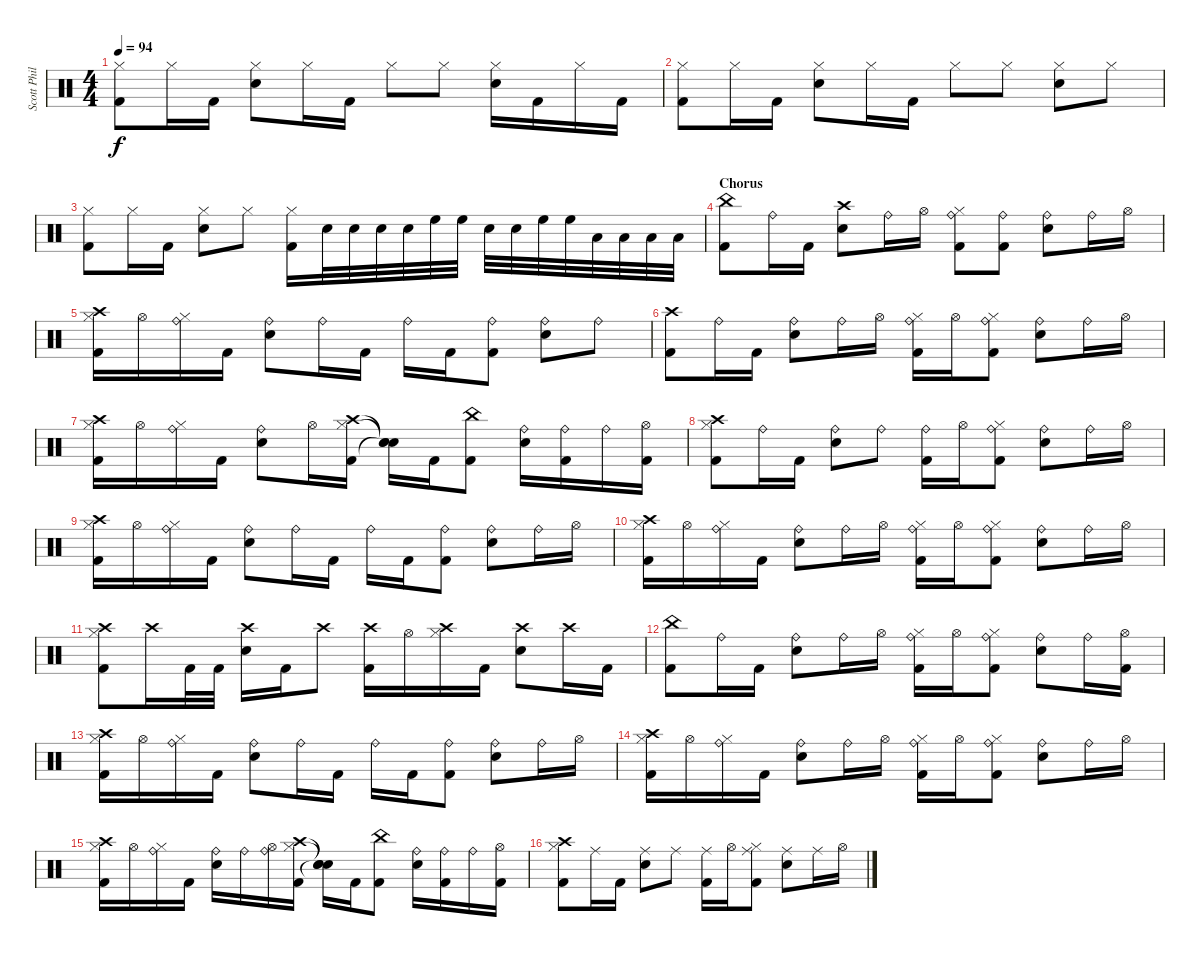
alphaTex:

\track ("Scott Phillips" "Scott Phil") {instrument percussion}
\staff {score}
\articulation defaults
\ts (4 4)
\tempo 94
\clef neutral
\ks c
("Hi-Hat (closed)" "Kick (hit) 2").8{dy f} "Hi-Hat (closed)".16 "Kick (hit) 2".16 ("Hi-Hat (closed)" "Electric Snare (hit)").8 "Hi-Hat (closed)".16 "Kick (hit) 2".16 "Hi-Hat (closed)".8 "Hi-Hat (closed)".8 ("Hi-Hat (closed)" "Electric Snare (hit)").16 "Kick (hit) 2".16 "Hi-Hat (closed)".16 "Kick (hit) 2".16 |
("Hi-Hat (closed)" "Kick (hit) 2").8 "Hi-Hat (closed)".16 "Kick (hit) 2".16 ("Hi-Hat (closed)" "Electric Snare (hit)").8 "Hi-Hat (closed)".16 "Kick (hit) 2".16 "Hi-Hat (closed)".8 "Hi-Hat (closed)".8 ("Hi-Hat (closed)" "Electric Snare (hit)").8 "Hi-Hat (closed)".8 |
("Hi-Hat (closed)" "Kick (hit) 2").8 "Hi-Hat (closed)".16 "Kick (hit) 2".16 ("Hi-Hat (closed)" "Electric Snare (hit)").8 "Hi-Hat (closed)".8 ("Hi-Hat (closed)" "Kick (hit) 2").16 "Electric Snare (hit)".32 "Electric Snare (hit)".32 "Electric Snare (hit)".32 "Electric Snare (hit)".32 "High Floor Tom (hit)".32 "High Floor Tom (hit)".32 "Electric Snare (hit)".32 "Electric Snare (hit)".32 "High Floor Tom (hit)".32 "High Floor Tom (hit)".32 "Low Tom (hit)".32 "Low Tom (hit)".32 "Low Floor Tom (hit)".32 "Low Floor Tom (hit)".32 |
\section ("" "Chorus")
("China (hit)" "Kick (hit) 2").8 "Ride (bell)".16 "Kick (hit) 2".16 ("Crash high (hit)" "Electric Snare (hit)").8 "Ride (bell)".16 "Hi-Hat (open)".16 ("Ride (bell)" "Hi-Hat (closed)" "Kick (hit) 2").8 ("Ride (bell)" "Kick (hit) 2").8 ("Ride (bell)" "Electric Snare (hit)").8 "Ride (bell)".16 "Hi-Hat (open)".16 |
("Crash high (hit)" "Hi-Hat (closed)" "Kick (hit) 2").16 "Hi-Hat (open)".16 ("Ride (bell)" "Hi-Hat (closed)").16 "Kick (hit) 2".16 ("Ride (bell)" "Electric Snare (hit)").8 "Ride (bell)".16 "Kick (hit) 2".16 "Ride (bell)".16 "Kick (hit) 2".16 ("Ride (bell)" "Kick (hit) 2").8 ("Ride (bell)" "Electric Snare (hit)").8 "Ride (bell)".8 |
("Crash high (hit)" "Kick (hit) 2").8 "Ride (bell)".16 "Kick (hit) 2".16 ("Ride (bell)" "Electric Snare (hit)").8 "Ride (bell)".16 "Hi-Hat (open)".16 ("Ride (bell)" "Hi-Hat (closed)" "Kick (hit) 2").16 "Hi-Hat (open)".16 ("Ride (bell)" "Hi-Hat (closed)" "Kick (hit) 2").8 ("Ride (bell)" "Electric Snare (hit)").8 "Ride (bell)".16 "Hi-Hat (open)".16 |
("Crash high (hit)" "Hi-Hat (closed)" "Kick (hit) 2").16 "Hi-Hat (open)".16 ("Ride (bell)" "Hi-Hat (closed)").16 "Kick (hit) 2".16 ("Ride (bell)" "Electric Snare (hit)").8 "Hi-Hat (open)".16 ("Crash high (hit)" "Hi-Hat (closed)" "Kick (hit) 2").16 ("Snare (hit)"{t} "Snare (hit)"{t} "Snare (hit)"{t}).16 "Kick (hit) 2".16 ("China (hit)" "Kick (hit) 2").8 ("Ride (bell)" "Electric Snare (hit)").16 ("Ride (bell)" "Kick (hit) 2").16 "Ride (bell)".16 ("Hi-Hat (open)" "Kick (hit) 2").16 |
("Crash high (hit)" "Hi-Hat (closed)" "Kick (hit) 2").8 "Ride (bell)".16 "Kick (hit) 2".16 ("Ride (bell)" "Electric Snare (hit)").8 "Ride (bell)".8 ("Ride (bell)" "Kick (hit) 2").16 "Hi-Hat (open)".16 ("Ride (bell)" "Hi-Hat (closed)" "Kick (hit) 2").8 ("Ride (bell)" "Electric Snare (hit)").8 "Ride (bell)".16 "Hi-Hat (open)".16 |
("Crash high (hit)" "Hi-Hat (closed)" "Kick (hit) 2").16 "Hi-Hat (open)".16 ("Ride (bell)" "Hi-Hat (closed)").16 "Kick (hit) 2".16 ("Ride (bell)" "Electric Snare (hit)").8 "Ride (bell)".16 "Kick (hit) 2".16 "Ride (bell)".16 "Kick (hit) 2".16 ("Ride (bell)" "Kick (hit) 2").8 ("Ride (bell)" "Electric Snare (hit)").8 "Ride (bell)".16 "Hi-Hat (open)".16 |
("Crash high (hit)" "Hi-Hat (closed)" "Kick (hit) 2").16 "Hi-Hat (open)".16 ("Ride (bell)" "Hi-Hat (closed)").16 "Kick (hit) 2".16 ("Ride (bell)" "Electric Snare (hit)").8 "Ride (bell)".16 "Hi-Hat (open)".16 ("Ride (bell)" "Hi-Hat (closed)" "Kick (hit) 2").16 "Hi-Hat (open)".16 ("Ride (bell)" "Hi-Hat (closed)" "Kick (hit) 2").8 ("Ride (bell)" "Electric Snare (hit)").8 "Ride (bell)".16 "Hi-Hat (open)".16 |
("Crash high (hit)" "Hi-Hat (closed)" "Kick (hit) 2").8 "Crash high (hit)".16 "Kick (hit) 2".32 "Kick (hit) 2".32 ("Crash high (hit)" "Electric Snare (hit)").16 "Kick (hit) 2".16 "Crash high (hit)".8 ("Crash high (hit)" "Kick (hit) 2").16 "Hi-Hat (open)".16 ("Crash high (hit)" "Hi-Hat (closed)").16 "Kick (hit) 2".16 ("Crash high (hit)" "Electric Snare (hit)").8 "Crash high (hit)".16 "Kick (hit) 2".16 |
("China (hit)" "Kick (hit) 2").8 "Ride (bell)".16 "Kick (hit) 2".16 ("Ride (bell)" "Electric Snare (hit)").8 "Ride (bell)".16 "Hi-Hat (open)".16 ("Ride (bell)" "Hi-Hat (closed)" "Kick (hit) 2").16 "Hi-Hat (open)".16 ("Ride (bell)" "Hi-Hat (closed)" "Kick (hit) 2").8 ("Ride (bell)" "Electric Snare (hit)").8 "Ride (bell)".16 ("Hi-Hat (open)" "Kick (hit) 2").16 |
("Crash high (hit)" "Hi-Hat (closed)" "Kick (hit) 2").16 "Hi-Hat (open)".16 ("Ride (bell)" "Hi-Hat (closed)").16 "Kick (hit) 2".16 ("Ride (bell)" "Electric Snare (hit)").8 "Ride (bell)".16 "Kick (hit) 2".16 "Ride (bell)".16 "Kick (hit) 2".16 ("Ride (bell)" "Kick (hit) 2").8 ("Ride (bell)" "Electric Snare (hit)").8 "Ride (bell)".16 "Hi-Hat (open)".16 |
("Crash high (hit)" "Hi-Hat (closed)" "Kick (hit) 2").16 "Hi-Hat (open)".16 ("Ride (bell)" "Hi-Hat (closed)").16 "Kick (hit) 2".16 ("Ride (bell)" "Electric Snare (hit)").8 "Ride (bell)".16 "Hi-Hat (open)".16 ("Ride (bell)" "Hi-Hat (closed)" "Kick (hit) 2").16 "Hi-Hat (open)".16 ("Ride (bell)" "Hi-Hat (closed)" "Kick (hit) 2").8 ("Ride (bell)" "Electric Snare (hit)").8 "Ride (bell)".16 "Hi-Hat (open)".16 |
("Crash high (hit)" "Hi-Hat (closed)" "Kick (hit) 2").16 "Hi-Hat (open)".16 ("Ride (bell)" "Hi-Hat (closed)").16 "Kick (hit) 2".16 ("Ride (bell)" "Electric Snare (hit)").16 "Ride (bell)".16 ("Ride (bell)" "Hi-Hat (open)").16 ("Crash high (hit)" "Hi-Hat (closed)" "Kick (hit) 2").16 ("Snare (hit)"{t} "Snare (hit)"{t} "Snare (hit)"{t}).16 "Kick (hit) 2".16 ("China (hit)" "Kick (hit) 2").8 ("Ride (bell)" "Electric Snare (hit)").16 ("Ride (bell)" "Kick (hit) 2").16 "Ride (bell)".16 ("Hi-Hat (open)" "Kick (hit) 2").16 |
("Crash high (hit)" "Hi-Hat (closed)" "Kick (hit) 2").8 "Ride (middle)".16 "Kick (hit) 2".16 ("Ride (middle)" "Electric Snare (hit)").8 "Ride (middle)".8 ("Ride (middle)" "Kick (hit) 2").16 "Hi-Hat (open)".16 ("Ride (middle)" "Hi-Hat (closed)" "Kick (hit) 2").8 ("Ride (middle)" "Electric Snare (hit)").8 "Ride (middle)".16 "Hi-Hat (open)".16
